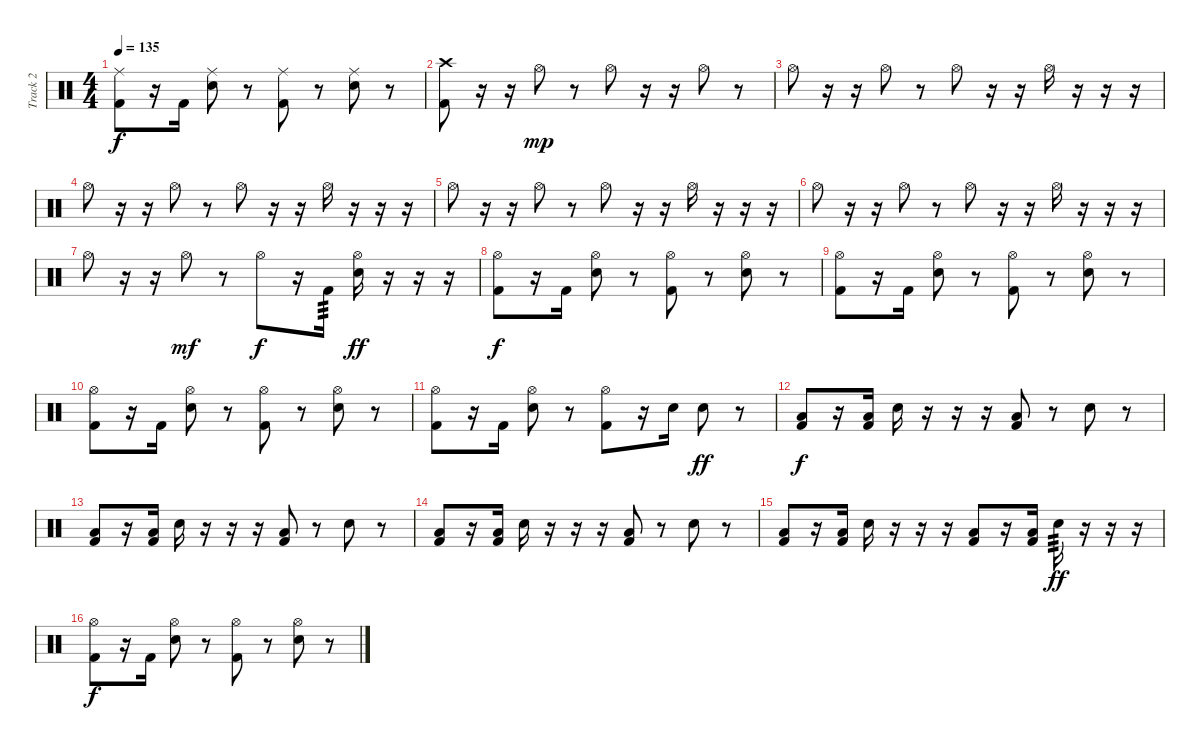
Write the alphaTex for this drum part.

\track ("Track 2" "Track 2") {instrument percussion}
\staff {score}
\articulation defaults
\ts (4 4)
\tempo 135
\clef neutral
\ks c
("Ride (middle)" "Kick (hit) 2").8{dy f} r.16 "Kick (hit) 2".16 ("Ride (middle)" "Electric Snare (hit)").8 r.8 ("Ride (middle)" "Kick (hit) 2").8 r.8 ("Ride (middle)" "Electric Snare (hit)").8 r.8 |
("Crash high (hit)" "Kick (hit) 2").8 r.16 r.16 "Hi-Hat (open)".8{dy mp} r.8 "Hi-Hat (open)".8 r.16 r.16 "Hi-Hat (open)".8 r.8 |
"Hi-Hat (open)".8 r.16 r.16 "Hi-Hat (open)".8 r.8 "Hi-Hat (open)".8 r.16 r.16 "Hi-Hat (open)".16 r.16 r.16 r.16 |
"Hi-Hat (open)".8 r.16 r.16 "Hi-Hat (open)".8 r.8 "Hi-Hat (open)".8 r.16 r.16 "Hi-Hat (open)".16 r.16 r.16 r.16 |
\section ("" "")
"Hi-Hat (open)".8 r.16 r.16 "Hi-Hat (open)".8 r.8 "Hi-Hat (open)".8 r.16 r.16 "Hi-Hat (open)".16 r.16 r.16 r.16 |
"Hi-Hat (open)".8 r.16 r.16 "Hi-Hat (open)".8 r.8 "Hi-Hat (open)".8 r.16 r.16 "Hi-Hat (open)".16 r.16 r.16 r.16 |
"Hi-Hat (open)".8 r.16 r.16 "Hi-Hat (open)".8{dy mf} r.8 "Hi-Hat (open)".8{dy f} r.16 "Kick (hit) 2".16{tp 3} ("Hi-Hat (open)" "Electric Snare (hit)").16{dy ff} r.16 r.16 r.16 |
("Hi-Hat (open)" "Kick (hit) 2").8{dy f} r.16 "Kick (hit) 2".16 ("Hi-Hat (open)" "Electric Snare (hit)").8 r.8 ("Hi-Hat (open)" "Kick (hit) 2").8 r.8 ("Hi-Hat (open)" "Electric Snare (hit)").8 r.8 |
("Hi-Hat (open)" "Kick (hit) 2").8 r.16 "Kick (hit) 2".16 ("Hi-Hat (open)" "Electric Snare (hit)").8 r.8 ("Hi-Hat (open)" "Kick (hit) 2").8 r.8 ("Hi-Hat (open)" "Electric Snare (hit)").8 r.8 |
("Hi-Hat (open)" "Kick (hit) 2").8 r.16 "Kick (hit) 2".16 ("Hi-Hat (open)" "Electric Snare (hit)").8 r.8 ("Hi-Hat (open)" "Kick (hit) 2").8 r.8 ("Hi-Hat (open)" "Electric Snare (hit)").8 r.8 |
("Hi-Hat (open)" "Kick (hit) 2").8 r.16 "Kick (hit) 2".16 ("Hi-Hat (open)" "Electric Snare (hit)").8 r.8 ("Hi-Hat (open)" "Kick (hit) 2").8 r.16 "Electric Snare (hit)".16 "Electric Snare (hit)".8{dy ff} r.8 |
("Low Floor Tom (hit)" "Kick (hit) 2").8{dy f} r.16 ("Low Floor Tom (hit)" "Kick (hit) 2").16 "Electric Snare (hit)".16 r.16 r.16 r.16 ("Low Floor Tom (hit)" "Kick (hit) 2").8 r.8 "Electric Snare (hit)".8 r.8 |
("Low Floor Tom (hit)" "Kick (hit) 2").8 r.16 ("Low Floor Tom (hit)" "Kick (hit) 2").16 "Electric Snare (hit)".16 r.16 r.16 r.16 ("Low Floor Tom (hit)" "Kick (hit) 2").8 r.8 "Electric Snare (hit)".8 r.8 |
("Low Floor Tom (hit)" "Kick (hit) 2").8 r.16 ("Low Floor Tom (hit)" "Kick (hit) 2").16 "Electric Snare (hit)".16 r.16 r.16 r.16 ("Low Floor Tom (hit)" "Kick (hit) 2").8 r.8 "Electric Snare (hit)".8 r.8 |
("Low Floor Tom (hit)" "Kick (hit) 2").8 r.16 ("Low Floor Tom (hit)" "Kick (hit) 2").16 "Electric Snare (hit)".16 r.16 r.16 r.16 ("Low Floor Tom (hit)" "Kick (hit) 2").8 r.16 ("Low Floor Tom (hit)" "Kick (hit) 2").16 "Electric Snare (hit)".16{tp 3 dy ff} r.16 r.16 r.16 |
("Hi-Hat (open)" "Kick (hit) 2").8{dy f} r.16 "Kick (hit) 2".16 ("Hi-Hat (open)" "Electric Snare (hit)").8 r.8 ("Hi-Hat (open)" "Kick (hit) 2").8 r.8 ("Hi-Hat (open)" "Electric Snare (hit)").8 r.8
